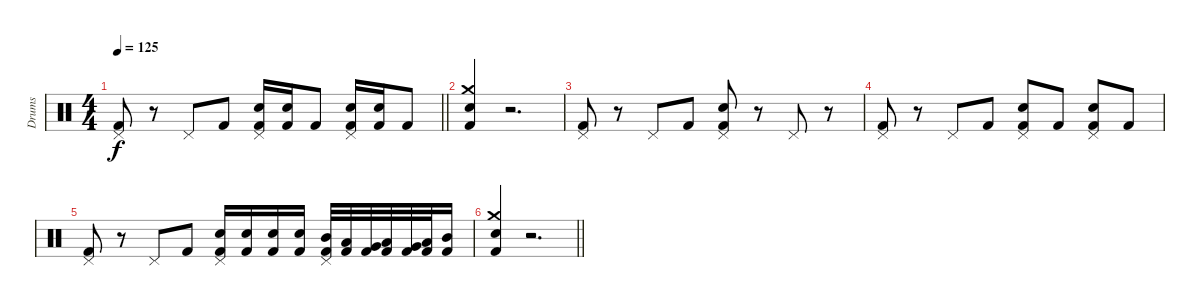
\track ("Drums" "Drums") {instrument percussion}
\staff {score}
\articulation defaults
\ts (4 4)
\tempo 125
\clef neutral
\barLineRight lightlight
\ks c
("Pedal Hi-Hat (hit)" "Kick (hit) 2").8{dy f} r.8 "Pedal Hi-Hat (hit)".8 "Kick (hit) 2".8 ("Pedal Hi-Hat (hit)" "Electric Snare (hit)" "Kick (hit) 2").16 ("Electric Snare (hit)" "Kick (hit) 2").16 "Kick (hit) 2".8 ("Pedal Hi-Hat (hit)" "Electric Snare (hit)" "Kick (hit) 2").16 ("Electric Snare (hit)" "Kick (hit) 2").16 "Kick (hit) 2".8 |
("Crash medium (hit)" "Snare (hit) 2" "Kick (hit) 2").4 r.2{d} |
("Pedal Hi-Hat (hit)" "Kick (hit) 2").8 r.8 "Pedal Hi-Hat (hit)".8 "Kick (hit) 2".8 ("Pedal Hi-Hat (hit)" "Electric Snare (hit)" "Kick (hit) 2").8 r.8 "Pedal Hi-Hat (hit)".8 r.8 |
("Pedal Hi-Hat (hit)" "Kick (hit) 2").8 r.8 "Pedal Hi-Hat (hit)".8 "Kick (hit) 2".8 ("Pedal Hi-Hat (hit)" "Electric Snare (hit)" "Kick (hit) 2").8 "Kick (hit) 2".8 ("Pedal Hi-Hat (hit)" "Electric Snare (hit)" "Kick (hit) 2").8 "Kick (hit) 2".8 |
("Pedal Hi-Hat (hit)" "Kick (hit) 2").8 r.8 "Pedal Hi-Hat (hit)".8 "Kick (hit) 2".8 ("Pedal Hi-Hat (hit)" "Electric Snare (hit)" "Kick (hit) 2").16 ("Electric Snare (hit)" "Kick (hit) 2").16 ("Electric Snare (hit)" "Kick (hit) 2").16 ("Electric Snare (hit)" "Kick (hit) 2").16 ("Pedal Hi-Hat (hit)" "Mid Tom (hit)" "Kick (hit) 2").32 ("Low Tom (hit)" "Kick (hit) 2").32 ("Very Low Tom (hit)" "Kick (hit) 2").32 ("Low Floor Tom (hit)" "Kick (hit) 2").32 ("Very Low Tom (hit)" "Kick (hit) 2").32 ("Low Tom (hit)" "Kick (hit) 2").32 ("Mid Tom (hit)" "Kick (hit) 2").16 |
\barLineRight lightlight
("Crash medium (hit)" "Snare (hit) 2" "Kick (hit) 2").4 r.2{d}
